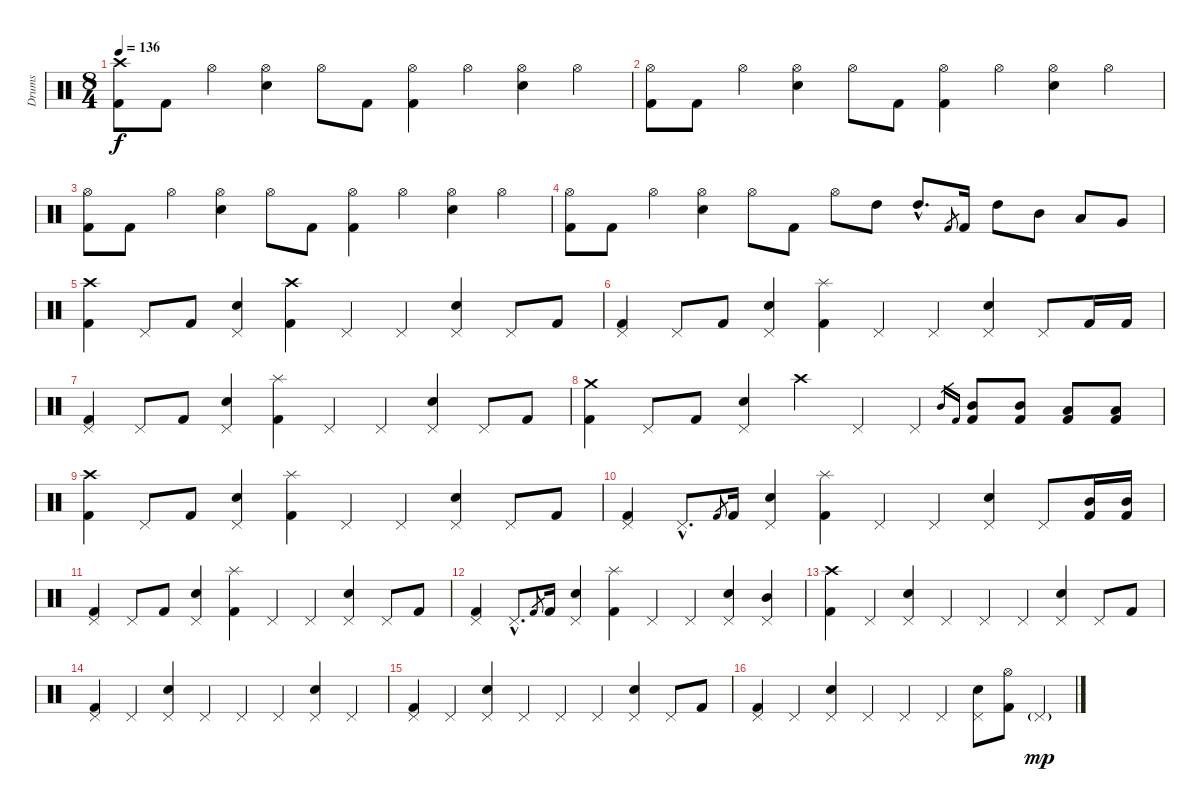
\track ("Drums" "Drums") {instrument percussion}
\staff {score}
\articulation defaults
\ts (8 4)
\tempo 136
\clef neutral
\ks c
("Crash high (hit)" "Kick (hit) 2").8{dy f} "Kick (hit) 2".8 "Hi-Hat (open)".4 ("Hi-Hat (open)" "Snare (hit) 2").4 "Hi-Hat (open)".8 "Kick (hit) 2".8 ("Hi-Hat (open)" "Kick (hit) 2").4 "Hi-Hat (open)".4 ("Hi-Hat (open)" "Snare (hit) 2").4 "Hi-Hat (open)".4 |
("Hi-Hat (open)" "Kick (hit) 2").8 "Kick (hit) 2".8 "Hi-Hat (open)".4 ("Hi-Hat (open)" "Snare (hit) 2").4 "Hi-Hat (open)".8 "Kick (hit) 2".8 ("Hi-Hat (open)" "Kick (hit) 2").4 "Hi-Hat (open)".4 ("Hi-Hat (open)" "Snare (hit) 2").4 "Hi-Hat (open)".4 |
("Hi-Hat (open)" "Kick (hit) 2").8 "Kick (hit) 2".8 "Hi-Hat (open)".4 ("Hi-Hat (open)" "Snare (hit) 2").4 "Hi-Hat (open)".8 "Kick (hit) 2".8 ("Hi-Hat (open)" "Kick (hit) 2").4 "Hi-Hat (open)".4 ("Hi-Hat (open)" "Snare (hit) 2").4 "Hi-Hat (open)".4 |
("Hi-Hat (open)" "Kick (hit) 2").8 "Kick (hit) 2".8 "Hi-Hat (open)".4 ("Hi-Hat (open)" "Snare (hit) 2").4 "Hi-Hat (open)".8 "Kick (hit) 2".8 "Hi-Hat (open)".8 "High Tom (hit)".8 "High Tom (hit)"{hac}.8{d} "Kick (hit) 2".8{gr} "Kick (hit) 2".16 "High Tom (hit)".8 "Mid Tom (hit)".8 "Low Tom (hit)".8 "Very Low Tom (hit)".8 |
("Crash high (hit)" "Kick (hit) 2").4 "Pedal Hi-Hat (hit)".8 "Kick (hit) 2".8 ("Pedal Hi-Hat (hit)" "Snare (hit) 2").4 ("Crash high (hit)" "Kick (hit) 2").4 "Pedal Hi-Hat (hit)".4 "Pedal Hi-Hat (hit)".4 ("Pedal Hi-Hat (hit)" "Snare (hit) 2").4 "Pedal Hi-Hat (hit)".8 "Kick (hit) 2".8 |
("Pedal Hi-Hat (hit)" "Kick (hit) 2").4 "Pedal Hi-Hat (hit)".8 "Kick (hit) 2".8 ("Pedal Hi-Hat (hit)" "Snare (hit) 2").4 ("Splash (hit)" "Kick (hit) 2").4 "Pedal Hi-Hat (hit)".4 "Pedal Hi-Hat (hit)".4 ("Pedal Hi-Hat (hit)" "Snare (hit) 2").4 "Pedal Hi-Hat (hit)".8 "Kick (hit) 2".16 "Kick (hit) 2".16 |
("Pedal Hi-Hat (hit)" "Kick (hit) 2").4 "Pedal Hi-Hat (hit)".8 "Kick (hit) 2".8 ("Pedal Hi-Hat (hit)" "Snare (hit) 2").4 ("Splash (hit)" "Kick (hit) 2").4 "Pedal Hi-Hat (hit)".4 "Pedal Hi-Hat (hit)".4 ("Pedal Hi-Hat (hit)" "Snare (hit) 2").4 "Pedal Hi-Hat (hit)".8 "Kick (hit) 2".8 |
("Crash medium (hit)" "Kick (hit) 2").4 "Pedal Hi-Hat (hit)".8 "Kick (hit) 2".8 ("Pedal Hi-Hat (hit)" "Snare (hit) 2").4 "Crash high (hit)".4 "Pedal Hi-Hat (hit)".4 "Pedal Hi-Hat (hit)".4 "Mid Tom (hit)".16{gr} "Kick (hit) 2".16{gr} ("Mid Tom (hit)" "Kick (hit) 2").8 ("Mid Tom (hit)" "Kick (hit) 2").8 ("Low Tom (hit)" "Kick (hit) 2").8 ("Low Tom (hit)" "Kick (hit) 2").8 |
("Crash high (hit)" "Kick (hit) 2").4 "Pedal Hi-Hat (hit)".8 "Kick (hit) 2".8 ("Pedal Hi-Hat (hit)" "Snare (hit) 2").4 ("Splash (hit)" "Kick (hit) 2").4 "Pedal Hi-Hat (hit)".4 "Pedal Hi-Hat (hit)".4 ("Pedal Hi-Hat (hit)" "Snare (hit) 2").4 "Pedal Hi-Hat (hit)".8 "Kick (hit) 2".8 |
("Pedal Hi-Hat (hit)" "Kick (hit) 2").4 "Pedal Hi-Hat (hit)"{hac}.8{d} "Kick (hit) 2".8{gr} "Kick (hit) 2".16 ("Pedal Hi-Hat (hit)" "Snare (hit) 2").4 ("Splash (hit)" "Kick (hit) 2").4 "Pedal Hi-Hat (hit)".4 "Pedal Hi-Hat (hit)".4 ("Pedal Hi-Hat (hit)" "Snare (hit) 2").4 "Pedal Hi-Hat (hit)".8 ("Mid Tom (hit)" "Kick (hit) 2").16 ("Mid Tom (hit)" "Kick (hit) 2").16 |
("Pedal Hi-Hat (hit)" "Kick (hit) 2").4 "Pedal Hi-Hat (hit)".8 "Kick (hit) 2".8 ("Pedal Hi-Hat (hit)" "Snare (hit) 2").4 ("Splash (hit)" "Kick (hit) 2").4 "Pedal Hi-Hat (hit)".4 "Pedal Hi-Hat (hit)".4 ("Pedal Hi-Hat (hit)" "Snare (hit) 2").4 "Pedal Hi-Hat (hit)".8 "Kick (hit) 2".8 |
("Pedal Hi-Hat (hit)" "Kick (hit) 2").4 "Pedal Hi-Hat (hit)"{hac}.8{d} "Kick (hit) 2".8{gr} "Kick (hit) 2".16 ("Pedal Hi-Hat (hit)" "Snare (hit) 2").4 ("Splash (hit)" "Kick (hit) 2").4 "Pedal Hi-Hat (hit)".4 "Pedal Hi-Hat (hit)".4 ("Pedal Hi-Hat (hit)" "Snare (hit) 2").4 ("Pedal Hi-Hat (hit)" "Mid Tom (hit)").4 |
("Crash high (hit)" "Kick (hit) 2").4 "Pedal Hi-Hat (hit)".4 ("Pedal Hi-Hat (hit)" "Snare (hit) 2").4 "Pedal Hi-Hat (hit)".4 "Pedal Hi-Hat (hit)".4 "Pedal Hi-Hat (hit)".4 ("Pedal Hi-Hat (hit)" "Snare (hit) 2").4 "Pedal Hi-Hat (hit)".8 "Kick (hit) 2".8 |
("Pedal Hi-Hat (hit)" "Kick (hit) 2").4 "Pedal Hi-Hat (hit)".4 ("Pedal Hi-Hat (hit)" "Snare (hit) 2").4 "Pedal Hi-Hat (hit)".4 "Pedal Hi-Hat (hit)".4 "Pedal Hi-Hat (hit)".4 ("Pedal Hi-Hat (hit)" "Snare (hit) 2").4 "Pedal Hi-Hat (hit)".4 |
("Pedal Hi-Hat (hit)" "Kick (hit) 2").4 "Pedal Hi-Hat (hit)".4 ("Pedal Hi-Hat (hit)" "Snare (hit) 2").4 "Pedal Hi-Hat (hit)".4 "Pedal Hi-Hat (hit)".4 "Pedal Hi-Hat (hit)".4 ("Pedal Hi-Hat (hit)" "Snare (hit) 2").4 "Pedal Hi-Hat (hit)".8 "Kick (hit) 2".8 |
("Pedal Hi-Hat (hit)" "Kick (hit) 2").4 "Pedal Hi-Hat (hit)".4 ("Pedal Hi-Hat (hit)" "Snare (hit) 2").4 "Pedal Hi-Hat (hit)".4 "Pedal Hi-Hat (hit)".4 "Pedal Hi-Hat (hit)".4 ("Pedal Hi-Hat (hit)" "Snare (hit) 2").8 ("Hi-Hat (open)" "Kick (hit) 2").8 "Pedal Hi-Hat (hit)"{g}.4{dy mp}
